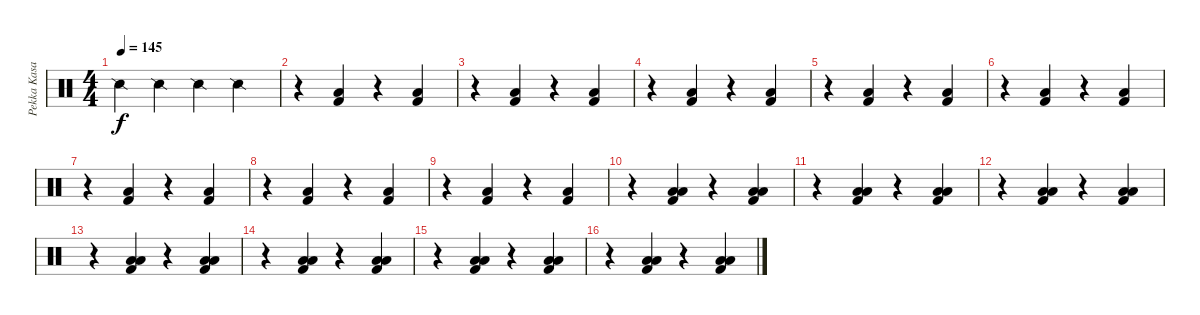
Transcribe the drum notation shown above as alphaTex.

\track ("Pekka Kasari" "Pekka Kasa") {instrument percussion}
\staff {score}
\articulation defaults
\ts (4 4)
\tempo 145
\clef neutral
\ks c "Snare (side stick) 2".4{dy f} "Snare (side stick) 2".4 "Snare (side stick) 2".4 "Snare (side stick) 2".4
|
r.4 ("Low Floor Tom (hit)" "Kick (hit) 2").4 r.4 ("Low Floor Tom (hit)" "Kick (hit) 2").4 |
r.4 ("Low Floor Tom (hit)" "Kick (hit) 2").4 r.4 ("Kick (hit) 2" "Low Floor Tom (hit)").4 |
r.4 ("Low Floor Tom (hit)" "Kick (hit) 2").4 r.4 ("Kick (hit) 2" "Low Floor Tom (hit)").4 |
r.4 ("Low Floor Tom (hit)" "Kick (hit) 2").4 r.4 ("Low Floor Tom (hit)" "Kick (hit) 2").4 |
r.4 ("Low Floor Tom (hit)" "Kick (hit) 2").4 r.4 ("Low Floor Tom (hit)" "Kick (hit) 2").4 |
r.4 ("Low Floor Tom (hit)" "Kick (hit) 2").4 r.4 ("Low Floor Tom (hit)" "Kick (hit) 2").4 |
r.4 ("Low Floor Tom (hit)" "Kick (hit) 2").4 r.4 ("Low Floor Tom (hit)" "Kick (hit) 2").4 |
r.4 ("Low Floor Tom (hit)" "Kick (hit) 2").4 r.4 ("Low Floor Tom (hit)" "Kick (hit) 2").4 |
r.4 ("Low Tom (hit)" "Low Floor Tom (hit)" "Kick (hit) 2").4 r.4 ("Low Floor Tom (hit)" "Kick (hit) 2" "Low Tom (hit)").4 |
r.4 ("Low Tom (hit)" "Low Floor Tom (hit)" "Kick (hit) 2").4 r.4 ("Low Floor Tom (hit)" "Kick (hit) 2" "Low Tom (hit)").4 |
r.4 ("Low Tom (hit)" "Low Floor Tom (hit)" "Kick (hit) 2").4 r.4 ("Low Floor Tom (hit)" "Kick (hit) 2" "Low Tom (hit)").4 |
r.4 ("Low Tom (hit)" "Low Floor Tom (hit)" "Kick (hit) 2").4 r.4 ("Low Floor Tom (hit)" "Kick (hit) 2" "Low Tom (hit)").4 |
r.4 ("Low Tom (hit)" "Low Floor Tom (hit)" "Kick (hit) 2").4 r.4 ("Low Floor Tom (hit)" "Kick (hit) 2" "Low Tom (hit)").4 |
r.4 ("Low Tom (hit)" "Low Floor Tom (hit)" "Kick (hit) 2").4 r.4 ("Low Floor Tom (hit)" "Kick (hit) 2" "Low Tom (hit)").4 |
r.4 ("Low Tom (hit)" "Low Floor Tom (hit)" "Kick (hit) 2").4 r.4 ("Low Floor Tom (hit)" "Kick (hit) 2" "Low Tom (hit)").4
